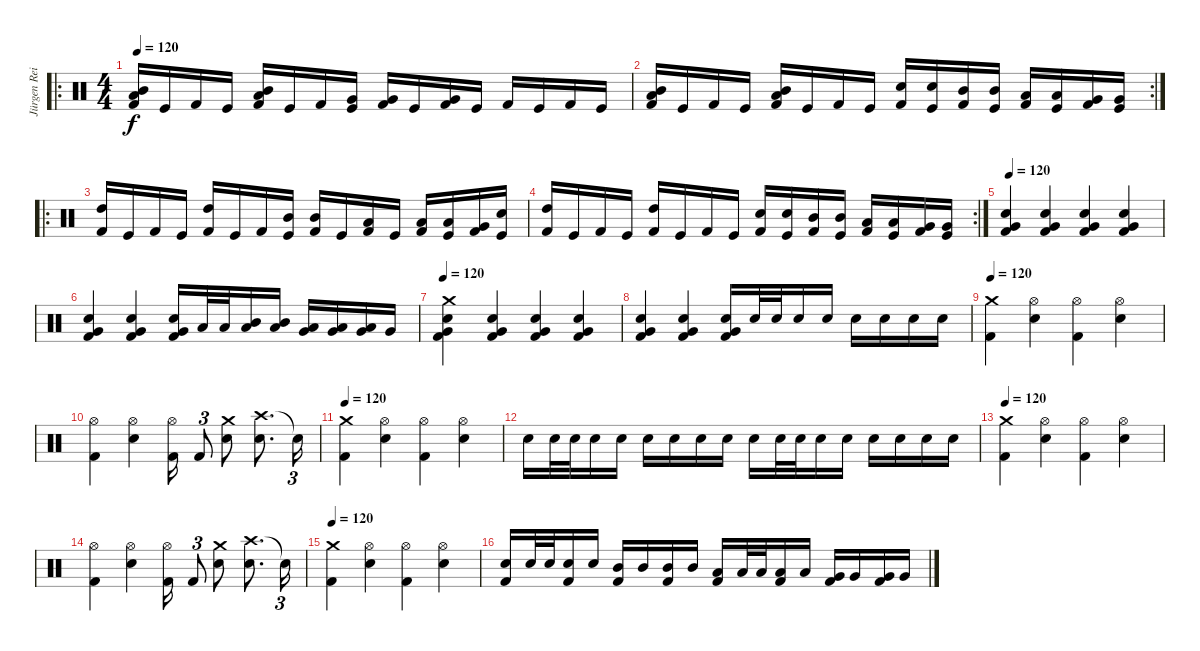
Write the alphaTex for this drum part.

\track ("Jürgen Reil" "Jürgen Rei") {instrument percussion}
\staff {score}
\articulation defaults
\ro
\ts (4 4)
\tempo 120
\clef neutral
\ks c
("Mid Tom (hit)" "Low Tom (hit)" "Kick (hit) 2").16{dy f} "Kick (hit)".16 "Kick (hit) 2".16 "Kick (hit)".16 ("Mid Tom (hit)" "Low Tom (hit)" "Kick (hit) 2").16 "Kick (hit)".16 "Kick (hit) 2".16 ("Very Low Tom (hit)" "Kick (hit)").16 ("Very Low Tom (hit)" "Kick (hit) 2").16 "Kick (hit)".16 ("Very Low Tom (hit)" "Kick (hit) 2").16 "Kick (hit)".16 "Kick (hit) 2".16 "Kick (hit)".16 "Kick (hit) 2".16 "Kick (hit)".16 |
\rc 2
("Mid Tom (hit)" "Low Tom (hit)" "Kick (hit) 2").16 "Kick (hit)".16 "Kick (hit) 2".16 "Kick (hit)".16 ("Mid Tom (hit)" "Low Tom (hit)" "Kick (hit) 2").16 "Kick (hit)".16 "Kick (hit) 2".16 "Kick (hit)".16 ("Electric Snare (hit)" "Kick (hit) 2").16 ("Electric Snare (hit)" "Kick (hit)").16 ("Mid Tom (hit)" "Kick (hit) 2").16 ("Mid Tom (hit)" "Kick (hit)").16 ("Low Tom (hit)" "Kick (hit) 2").16 ("Low Tom (hit)" "Kick (hit)").16 ("Very Low Tom (hit)" "Kick (hit) 2").16 ("Very Low Tom (hit)" "Kick (hit)").16 |
\ro
("High Tom (hit)" "Kick (hit) 2").16 "Kick (hit)".16 "Kick (hit) 2".16 "Kick (hit)".16 ("High Tom (hit)" "Kick (hit) 2").16 "Kick (hit)".16 "Kick (hit) 2".16 ("Mid Tom (hit)" "Kick (hit)").16 ("Mid Tom (hit)" "Kick (hit) 2").16 "Kick (hit)".16 ("Low Tom (hit)" "Kick (hit) 2").16 "Kick (hit)".16 ("Low Tom (hit)" "Kick (hit) 2").16 ("Low Tom (hit)" "Kick (hit)").16 ("Very Low Tom (hit)" "Kick (hit) 2").16 ("Snare (hit)" "Kick (hit)").16 |
\rc 2
("High Tom (hit)" "Kick (hit) 2").16 "Kick (hit)".16 "Kick (hit) 2".16 "Kick (hit)".16 ("High Tom (hit)" "Kick (hit) 2").16 "Kick (hit)".16 "Kick (hit) 2".16 "Kick (hit)".16 ("Electric Snare (hit)" "Kick (hit) 2").16 ("Electric Snare (hit)" "Kick (hit)").16 ("Mid Tom (hit)" "Kick (hit) 2").16 ("Mid Tom (hit)" "Kick (hit)").16 ("Low Tom (hit)" "Kick (hit) 2").16 ("Low Tom (hit)" "Kick (hit)").16 ("Very Low Tom (hit)" "Kick (hit) 2").16 ("Very Low Tom (hit)" "Kick (hit)").16 |
\tempo 120
("Very Low Tom (hit)" "Electric Snare (hit)" "Kick (hit) 2").4 ("Very Low Tom (hit)" "Electric Snare (hit)" "Kick (hit) 2").4 ("Very Low Tom (hit)" "Electric Snare (hit)" "Kick (hit) 2").4 ("Very Low Tom (hit)" "Electric Snare (hit)" "Kick (hit) 2").4 |
("Very Low Tom (hit)" "Electric Snare (hit)" "Kick (hit) 2").4 ("Very Low Tom (hit)" "Electric Snare (hit)" "Kick (hit) 2").4 ("Very Low Tom (hit)" "Electric Snare (hit)" "Kick (hit) 2").16 "Low Tom (hit)".32 "Low Tom (hit)".32 ("Mid Tom (hit)" "Low Tom (hit)").16 ("Mid Tom (hit)" "Low Tom (hit)").16 ("Low Tom (hit)" "Very Low Tom (hit)").16 ("Low Tom (hit)" "Very Low Tom (hit)").16 ("Low Tom (hit)" "Very Low Tom (hit)").16 "Very Low Tom (hit)".16 |
\tempo 120
("Crash medium (hit)" "Very Low Tom (hit)" "Electric Snare (hit)" "Kick (hit) 2").4 ("Very Low Tom (hit)" "Electric Snare (hit)" "Kick (hit) 2").4 ("Very Low Tom (hit)" "Electric Snare (hit)" "Kick (hit) 2").4 ("Very Low Tom (hit)" "Electric Snare (hit)" "Kick (hit) 2").4 |
("Very Low Tom (hit)" "Electric Snare (hit)" "Kick (hit) 2").4 ("Very Low Tom (hit)" "Electric Snare (hit)" "Kick (hit) 2").4 ("Very Low Tom (hit)" "Electric Snare (hit)" "Kick (hit) 2").16 "Electric Snare (hit)".32 "Electric Snare (hit)".32 "Electric Snare (hit)".16 "Electric Snare (hit)".16 "Electric Snare (hit)".16 "Electric Snare (hit)".16 "Electric Snare (hit)".16 "Electric Snare (hit)".16 |
\tempo 120
("Crash medium (hit)" "Kick (hit) 2").4 ("Hi-Hat (open)" "Electric Snare (hit)").4 ("Hi-Hat (open)" "Kick (hit) 2").4 ("Hi-Hat (open)" "Electric Snare (hit)").4 |
("Hi-Hat (open)" "Kick (hit) 2").4 ("Hi-Hat (open)" "Electric Snare (hit)").4 ("Hi-Hat (open)" "Kick (hit) 2").16 "Kick (hit) 2".8{tu (3 2)} ("Crash medium (hit)" "Electric Snare (hit)").8 ("Crash high (hit)" "Electric Snare (hit)").8{d} "Snare (hit)"{t}.16{tu (3 2)} |
\tempo 120
("Crash medium (hit)" "Kick (hit) 2").4 ("Hi-Hat (open)" "Electric Snare (hit)").4 ("Hi-Hat (open)" "Kick (hit) 2").4 ("Hi-Hat (open)" "Electric Snare (hit)").4 |
"Electric Snare (hit)".16 "Electric Snare (hit)".32 "Electric Snare (hit)".32 "Electric Snare (hit)".16 "Electric Snare (hit)".16 "Electric Snare (hit)".16 "Electric Snare (hit)".16 "Electric Snare (hit)".16 "Electric Snare (hit)".16 "Electric Snare (hit)".16 "Electric Snare (hit)".32 "Electric Snare (hit)".32 "Electric Snare (hit)".16 "Electric Snare (hit)".16 "Electric Snare (hit)".16 "Electric Snare (hit)".16 "Electric Snare (hit)".16 "Electric Snare (hit)".16 |
\tempo 120
("Crash medium (hit)" "Kick (hit) 2").4 ("Hi-Hat (open)" "Electric Snare (hit)").4 ("Hi-Hat (open)" "Kick (hit) 2").4 ("Hi-Hat (open)" "Electric Snare (hit)").4 |
("Hi-Hat (open)" "Kick (hit) 2").4 ("Hi-Hat (open)" "Electric Snare (hit)").4 ("Hi-Hat (open)" "Kick (hit) 2").16 "Kick (hit) 2".8{tu (3 2)} ("Crash medium (hit)" "Electric Snare (hit)").8 ("Crash high (hit)" "Electric Snare (hit)").8{d} "Snare (hit)"{t}.16{tu (3 2)} |
\tempo 120
("Crash medium (hit)" "Kick (hit) 2").4 ("Hi-Hat (open)" "Electric Snare (hit)").4 ("Hi-Hat (open)" "Kick (hit) 2").4 ("Hi-Hat (open)" "Electric Snare (hit)").4 |
("Electric Snare (hit)" "Kick (hit) 2").16 "Electric Snare (hit)".32 "Electric Snare (hit)".32 ("Electric Snare (hit)" "Kick (hit) 2").16 "Electric Snare (hit)".16 ("Mid Tom (hit)" "Kick (hit) 2").16 "Mid Tom (hit)".16 ("Mid Tom (hit)" "Kick (hit) 2").16 "Mid Tom (hit)".16 ("Low Tom (hit)" "Kick (hit) 2").16 "Low Tom (hit)".32 "Low Tom (hit)".32 ("Low Tom (hit)" "Kick (hit) 2").16 "Low Tom (hit)".16 ("Very Low Tom (hit)" "Kick (hit) 2").16 "Very Low Tom (hit)".16 ("Very Low Tom (hit)" "Kick (hit) 2").16 "Very Low Tom (hit)".16
